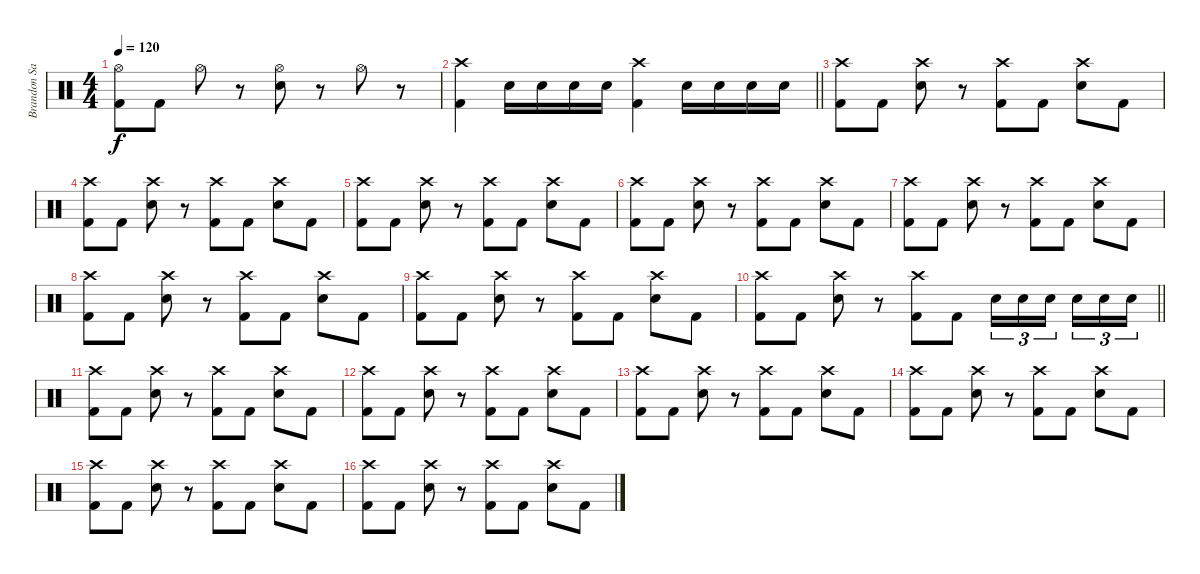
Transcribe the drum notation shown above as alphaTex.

\track ("Brandon Saller" "Brandon Sa") {instrument percussion}
\staff {score}
\articulation defaults
\ts (4 4)
\tempo 120
\clef neutral
\ks c
("Hi-Hat (open)" "Kick (hit) 2").8{dy f} "Kick (hit) 2".8 "Hi-Hat (open)".8 r.8 ("Hi-Hat (open)" "Electric Snare (hit)").8 r.8 "Hi-Hat (open)".8 r.8 |
\barLineRight lightlight
("Crash high (hit)" "Kick (hit) 2").4{volume 16} "Electric Snare (hit)".16 "Electric Snare (hit)".16 "Electric Snare (hit)".16 "Electric Snare (hit)".16 ("Crash high (hit)" "Kick (hit) 2").4 "Electric Snare (hit)".16 "Electric Snare (hit)".16 "Electric Snare (hit)".16 "Electric Snare (hit)".16 |
("Crash high (hit)" "Kick (hit) 2").8{volume 14} "Kick (hit) 2".8 ("Crash high (hit)" "Electric Snare (hit)").8 r.8 ("Crash high (hit)" "Kick (hit) 2").8 "Kick (hit) 2".8 ("Crash high (hit)" "Electric Snare (hit)").8 "Kick (hit) 2".8 |
("Crash high (hit)" "Kick (hit) 2").8 "Kick (hit) 2".8 ("Crash high (hit)" "Electric Snare (hit)").8 r.8 ("Crash high (hit)" "Kick (hit) 2").8 "Kick (hit) 2".8 ("Crash high (hit)" "Electric Snare (hit)").8 "Kick (hit) 2".8 |
("Crash high (hit)" "Kick (hit) 2").8 "Kick (hit) 2".8 ("Crash high (hit)" "Electric Snare (hit)").8 r.8 ("Crash high (hit)" "Kick (hit) 2").8 "Kick (hit) 2".8 ("Crash high (hit)" "Electric Snare (hit)").8 "Kick (hit) 2".8 |
("Crash high (hit)" "Kick (hit) 2").8 "Kick (hit) 2".8 ("Crash high (hit)" "Electric Snare (hit)").8 r.8 ("Crash high (hit)" "Kick (hit) 2").8 "Kick (hit) 2".8 ("Crash high (hit)" "Electric Snare (hit)").8 "Kick (hit) 2".8 |
("Crash high (hit)" "Kick (hit) 2").8 "Kick (hit) 2".8 ("Crash high (hit)" "Electric Snare (hit)").8 r.8 ("Crash high (hit)" "Kick (hit) 2").8 "Kick (hit) 2".8 ("Crash high (hit)" "Electric Snare (hit)").8 "Kick (hit) 2".8 |
("Crash high (hit)" "Kick (hit) 2").8 "Kick (hit) 2".8 ("Crash high (hit)" "Electric Snare (hit)").8 r.8 ("Crash high (hit)" "Kick (hit) 2").8 "Kick (hit) 2".8 ("Crash high (hit)" "Electric Snare (hit)").8 "Kick (hit) 2".8 |
("Crash high (hit)" "Kick (hit) 2").8 "Kick (hit) 2".8 ("Crash high (hit)" "Electric Snare (hit)").8 r.8 ("Crash high (hit)" "Kick (hit) 2").8 "Kick (hit) 2".8 ("Crash high (hit)" "Electric Snare (hit)").8 "Kick (hit) 2".8 |
\barLineRight lightlight
("Crash high (hit)" "Kick (hit) 2").8 "Kick (hit) 2".8 ("Crash high (hit)" "Electric Snare (hit)").8 r.8 ("Crash high (hit)" "Kick (hit) 2").8 "Kick (hit) 2".8 "Electric Snare (hit)".16{tu (3 2)} "Electric Snare (hit)".16{tu (3 2)} "Electric Snare (hit)".16{tu (3 2) beam splitsecondary} "Electric Snare (hit)".16{tu (3 2)} "Electric Snare (hit)".16{tu (3 2)} "Electric Snare (hit)".16{tu (3 2)} |
("Crash high (hit)" "Kick (hit) 2").8 "Kick (hit) 2".8 ("Crash high (hit)" "Electric Snare (hit)").8 r.8 ("Crash high (hit)" "Kick (hit) 2").8 "Kick (hit) 2".8 ("Crash high (hit)" "Electric Snare (hit)").8 "Kick (hit) 2".8 |
("Crash high (hit)" "Kick (hit) 2").8 "Kick (hit) 2".8 ("Crash high (hit)" "Electric Snare (hit)").8 r.8 ("Crash high (hit)" "Kick (hit) 2").8 "Kick (hit) 2".8 ("Crash high (hit)" "Electric Snare (hit)").8 "Kick (hit) 2".8 |
("Crash high (hit)" "Kick (hit) 2").8 "Kick (hit) 2".8 ("Crash high (hit)" "Electric Snare (hit)").8 r.8 ("Crash high (hit)" "Kick (hit) 2").8 "Kick (hit) 2".8 ("Crash high (hit)" "Electric Snare (hit)").8 "Kick (hit) 2".8 |
("Crash high (hit)" "Kick (hit) 2").8 "Kick (hit) 2".8 ("Crash high (hit)" "Electric Snare (hit)").8 r.8 ("Crash high (hit)" "Kick (hit) 2").8 "Kick (hit) 2".8 ("Crash high (hit)" "Electric Snare (hit)").8 "Kick (hit) 2".8 |
("Crash high (hit)" "Kick (hit) 2").8 "Kick (hit) 2".8 ("Crash high (hit)" "Electric Snare (hit)").8 r.8 ("Crash high (hit)" "Kick (hit) 2").8 "Kick (hit) 2".8 ("Crash high (hit)" "Electric Snare (hit)").8 "Kick (hit) 2".8 |
("Crash high (hit)" "Kick (hit) 2").8 "Kick (hit) 2".8 ("Crash high (hit)" "Electric Snare (hit)").8 r.8 ("Crash high (hit)" "Kick (hit) 2").8 "Kick (hit) 2".8 ("Crash high (hit)" "Electric Snare (hit)").8 "Kick (hit) 2".8
